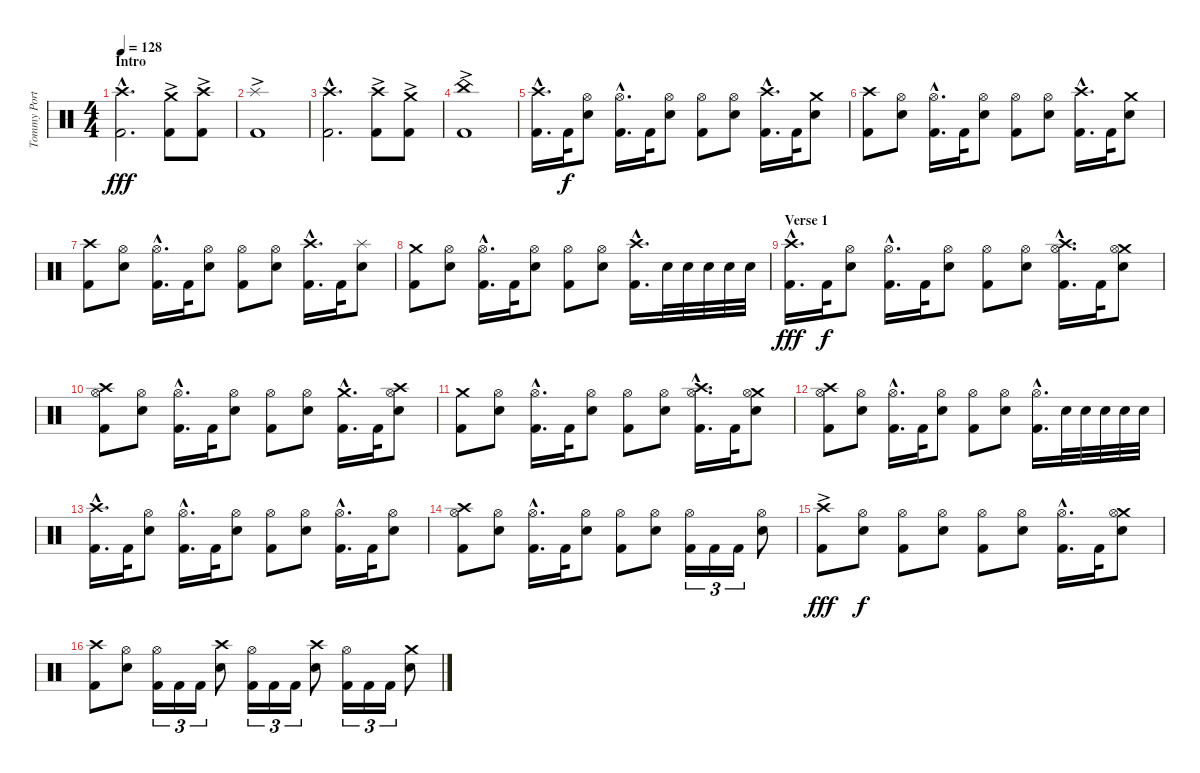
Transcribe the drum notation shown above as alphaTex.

\track ("Tommy Portimo" "Tommy Port") {instrument percussion}
\staff {score}
\articulation defaults
\ts (4 4)
\section ("" "Intro")
\tempo 128
\clef neutral
\ks c
("Crash high (hit)"{hac} "Kick (hit) 2"{hac}).2{d dy fff} ("Crash medium (hit)"{ac} "Kick (hit) 2").8 ("Crash high (hit)"{ac} "Kick (hit) 2").8 |
("Splash (hit)"{ac} "Kick (hit) 2").1 |
("Crash high (hit)"{hac} "Kick (hit) 2"{hac}).2{d} ("Crash high (hit)"{ac} "Kick (hit) 2").8 ("Crash medium (hit)"{ac} "Kick (hit) 2").8 |
("China (hit)"{ac} "Kick (hit) 2").1 |
("Crash high (hit)"{hac} "Kick (hit) 2"{hac}).16{d} "Kick (hit) 2".32{dy f} ("Hi-Hat (open)" "Snare (hit) 2").8 ("Hi-Hat (open)"{hac} "Kick (hit) 2"{hac}).16{d} "Kick (hit) 2".32 ("Hi-Hat (open)" "Snare (hit) 2").8 ("Hi-Hat (open)" "Kick (hit) 2").8 ("Hi-Hat (open)" "Snare (hit) 2").8 ("Crash high (hit)"{hac} "Kick (hit) 2"{hac}).16{d} "Kick (hit) 2".32 ("Crash medium (hit)" "Snare (hit) 2").8 |
("Crash high (hit)" "Kick (hit) 2").8 ("Hi-Hat (open)" "Snare (hit) 2").8 ("Hi-Hat (open)"{hac} "Kick (hit) 2"{hac}).16{d} "Kick (hit) 2".32 ("Hi-Hat (open)" "Snare (hit) 2").8 ("Hi-Hat (open)" "Kick (hit) 2").8 ("Hi-Hat (open)" "Snare (hit) 2").8 ("Crash high (hit)"{hac} "Kick (hit) 2"{hac}).16{d} "Kick (hit) 2".32 ("Crash medium (hit)" "Snare (hit) 2").8 |
("Crash high (hit)" "Kick (hit) 2").8 ("Hi-Hat (open)" "Snare (hit) 2").8 ("Hi-Hat (open)"{hac} "Kick (hit) 2"{hac}).16{d} "Kick (hit) 2".32 ("Hi-Hat (open)" "Snare (hit) 2").8 ("Hi-Hat (open)" "Kick (hit) 2").8 ("Hi-Hat (open)" "Snare (hit) 2").8 ("Crash high (hit)"{hac} "Kick (hit) 2"{hac}).16{d} "Kick (hit) 2".32 ("Splash (hit)" "Snare (hit) 2").8 |
("Crash medium (hit)" "Kick (hit) 2").8 ("Hi-Hat (open)" "Snare (hit) 2").8 ("Hi-Hat (open)"{hac} "Kick (hit) 2"{hac}).16{d} "Kick (hit) 2".32 ("Hi-Hat (open)" "Snare (hit) 2").8 ("Hi-Hat (open)" "Kick (hit) 2").8 ("Hi-Hat (open)" "Snare (hit) 2").8 ("Crash high (hit)"{hac} "Kick (hit) 2"{hac}).16{d} "Snare (hit) 2".32 "Snare (hit) 2".32 "Snare (hit) 2".32 "Snare (hit) 2".32 "Snare (hit) 2".32 |
\section ("" "Verse 1")
("Crash high (hit)"{hac} "Kick (hit) 2"{hac}).16{d dy fff} "Kick (hit) 2".32{dy f} ("Hi-Hat (open)" "Snare (hit) 2").8 ("Hi-Hat (open)"{hac} "Kick (hit) 2"{hac}).16{d} "Kick (hit) 2".32 ("Hi-Hat (open)" "Snare (hit) 2").8 ("Hi-Hat (open)" "Kick (hit) 2").8 ("Hi-Hat (open)" "Snare (hit) 2").8 ("Crash high (hit)"{hac} "Hi-Hat (open)"{hac} "Kick (hit) 2"{hac}).16{d} "Kick (hit) 2".32 ("Crash medium (hit)" "Hi-Hat (open)" "Snare (hit) 2").8 |
("Crash high (hit)" "Hi-Hat (open)" "Kick (hit) 2").8 ("Hi-Hat (open)" "Snare (hit) 2").8 ("Hi-Hat (open)"{hac} "Kick (hit) 2"{hac}).16{d} "Kick (hit) 2".32 ("Hi-Hat (open)" "Snare (hit) 2").8 ("Hi-Hat (open)" "Kick (hit) 2").8 ("Hi-Hat (open)" "Snare (hit) 2").8 ("Crash medium (hit)"{hac} "Kick (hit) 2"{hac}).16{d} "Kick (hit) 2".32 ("Crash high (hit)" "Hi-Hat (open)" "Snare (hit) 2").8 |
("Crash medium (hit)" "Kick (hit) 2").8 ("Hi-Hat (open)" "Snare (hit) 2").8 ("Hi-Hat (open)"{hac} "Kick (hit) 2"{hac}).16{d} "Kick (hit) 2".32 ("Hi-Hat (open)" "Snare (hit) 2").8 ("Hi-Hat (open)" "Kick (hit) 2").8 ("Hi-Hat (open)" "Snare (hit) 2").8 ("Crash high (hit)"{hac} "Hi-Hat (open)"{hac} "Kick (hit) 2"{hac}).16{d} "Kick (hit) 2".32 ("Crash medium (hit)" "Hi-Hat (open)" "Snare (hit) 2").8 |
("Crash high (hit)" "Hi-Hat (open)" "Kick (hit) 2").8 ("Hi-Hat (open)" "Snare (hit) 2").8 ("Hi-Hat (open)"{hac} "Kick (hit) 2"{hac}).16{d} "Kick (hit) 2".32 ("Hi-Hat (open)" "Snare (hit) 2").8 ("Hi-Hat (open)" "Kick (hit) 2").8 ("Hi-Hat (open)" "Snare (hit) 2").8 ("Hi-Hat (open)"{hac} "Kick (hit) 2"{hac}).16{d} "Snare (hit) 2".32 "Snare (hit) 2".32 "Snare (hit) 2".32 "Snare (hit) 2".32 "Snare (hit) 2".32 |
("Crash high (hit)"{hac} "Kick (hit) 2"{hac}).16{d} "Kick (hit) 2".32 ("Hi-Hat (open)" "Snare (hit) 2").8 ("Hi-Hat (open)"{hac} "Kick (hit) 2"{hac}).16{d} "Kick (hit) 2".32 ("Hi-Hat (open)" "Snare (hit) 2").8 ("Hi-Hat (open)" "Kick (hit) 2").8 ("Hi-Hat (open)" "Snare (hit) 2").8 ("Hi-Hat (open)"{hac} "Kick (hit) 2"{hac}).16{d} "Kick (hit) 2".32 ("Hi-Hat (open)" "Snare (hit) 2").8 |
("Crash high (hit)" "Hi-Hat (open)" "Kick (hit) 2").8 ("Hi-Hat (open)" "Snare (hit) 2").8 ("Hi-Hat (open)"{hac} "Kick (hit) 2"{hac}).16{d} "Kick (hit) 2".32 ("Hi-Hat (open)" "Snare (hit) 2").8 ("Hi-Hat (open)" "Kick (hit) 2").8 ("Hi-Hat (open)" "Snare (hit) 2").8 ("Hi-Hat (open)" "Kick (hit) 2").16{tu (3 2)} "Kick (hit) 2".16{tu (3 2)} "Kick (hit) 2".16{tu (3 2)} ("Hi-Hat (open)" "Snare (hit) 2").8 |
("Crash high (hit)"{ac} "Kick (hit) 2").8{dy fff} ("Hi-Hat (open)" "Snare (hit) 2").8{dy f} ("Hi-Hat (open)" "Kick (hit) 2").8 ("Hi-Hat (open)" "Snare (hit) 2").8 ("Hi-Hat (open)" "Kick (hit) 2").8 ("Hi-Hat (open)" "Snare (hit) 2").8 ("Hi-Hat (open)"{hac} "Kick (hit) 2"{hac}).16{d} "Kick (hit) 2".32 ("Crash medium (hit)" "Hi-Hat (open)" "Snare (hit) 2").8 |
("Crash high (hit)" "Kick (hit) 2").8 ("Hi-Hat (open)" "Snare (hit) 2").8 ("Hi-Hat (open)" "Kick (hit) 2").16{tu (3 2)} "Kick (hit) 2".16{tu (3 2)} "Kick (hit) 2".16{tu (3 2)} ("Crash high (hit)" "Snare (hit) 2").8 ("Hi-Hat (open)" "Kick (hit) 2").16{tu (3 2)} "Kick (hit) 2".16{tu (3 2)} "Kick (hit) 2".16{tu (3 2)} ("Crash high (hit)" "Snare (hit) 2").8 ("Hi-Hat (open)" "Kick (hit) 2").16{tu (3 2)} "Kick (hit) 2".16{tu (3 2)} "Kick (hit) 2".16{tu (3 2)} ("Crash medium (hit)" "Snare (hit) 2").8
